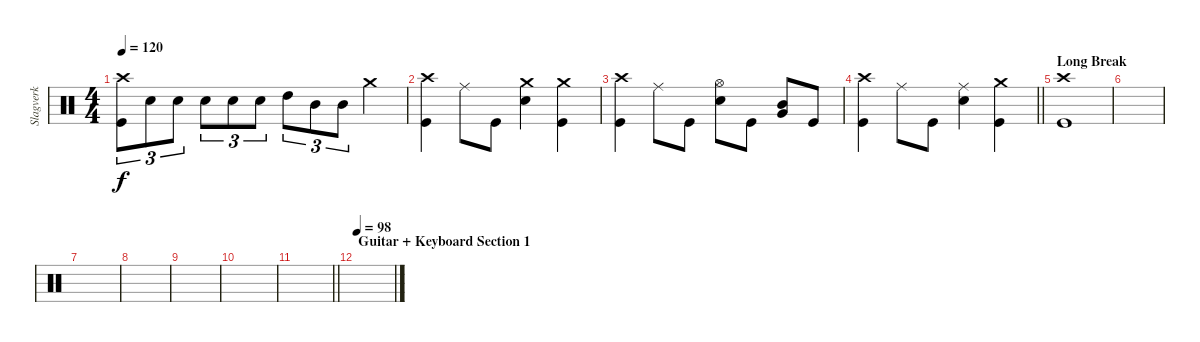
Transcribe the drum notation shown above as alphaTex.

\track ("Slagverk" "Slagverk") {instrument percussion}
\staff {score}
\articulation defaults
\ts (4 4)
\tempo 120
\clef neutral
\ks c
("Crash high (hit)" "Kick (hit)").8{tu (3 2) dy f} "Electric Snare (hit)".8{tu (3 2)} "Electric Snare (hit)".8{tu (3 2)} "Electric Snare (hit)".8{tu (3 2)} "Electric Snare (hit)".8{tu (3 2)} "Electric Snare (hit)".8{tu (3 2)} "High Tom (hit)".8{tu (3 2)} "Mid Tom (hit)".8{tu (3 2)} "Mid Tom (hit)".8{tu (3 2)} "Crash medium (hit)".4 |
("Crash high (hit)" "Kick (hit)").4 "Ride (middle)".8 "Kick (hit)".8 ("Crash medium (hit)" "Electric Snare (hit)").4 ("Crash medium (hit)" "Kick (hit)").4 |
("Crash high (hit)" "Kick (hit)").4 "Ride (middle)".8 "Kick (hit)".8 ("Hi-Hat (open)" "Electric Snare (hit)").8 "Kick (hit)".8 ("Very Low Tom (hit)" "Mid Tom (hit)").8 "Kick (hit)".8 |
\barLineRight lightlight
("Crash high (hit)" "Kick (hit)").4 "Ride (middle)".8 "Kick (hit)".8 ("Ride (middle)" "Electric Snare (hit)").4 ("Crash medium (hit)" "Kick (hit)").4 |
\section ("" "Long Break")
("Crash high (hit)" "Kick (hit)").1 |
|
|
|
|
|
\barLineRight lightlight
|
\section ("" "Guitar + Keyboard Section 1")
\tempo 98
